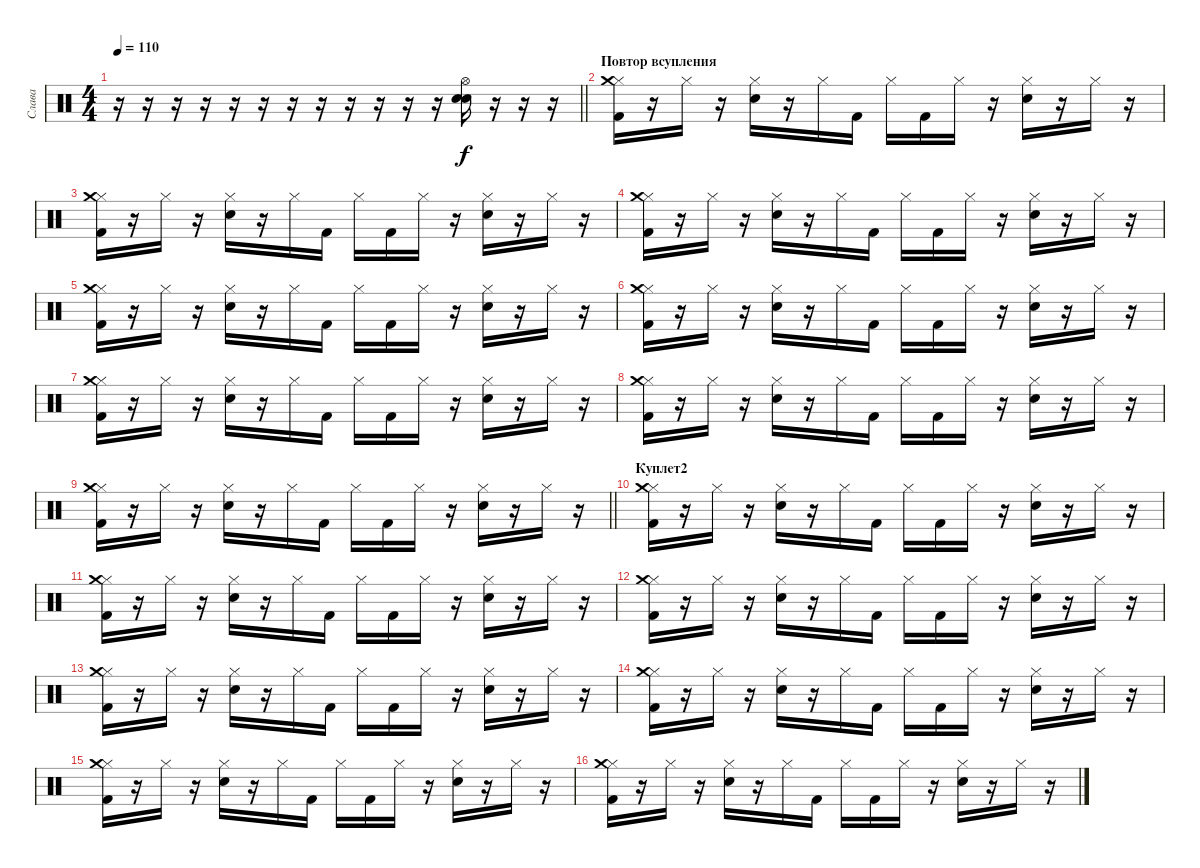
\track ("Слава" "Слава") {instrument percussion}
\staff {score}
\articulation defaults
\ts (4 4)
\tempo 110
\clef neutral
\barLineRight lightlight
\ks c
r.16{dy f} r.16 r.16 r.16 r.16 r.16 r.16 r.16 r.16 r.16 r.16 r.16 ("Hi-Hat (open)" "Snare (hit) 2" "Electric Snare (hit)").16 r.16 r.16 r.16 |
\section ("" "Повтор всупления")
("Hi-Hat (closed)" "Crash medium (hit)" "Kick (hit) 2").16 r.16 "Hi-Hat (closed)".16 r.16 ("Hi-Hat (closed)" "Electric Snare (hit)").16 r.16 "Hi-Hat (closed)".16 "Kick (hit) 2".16 "Hi-Hat (closed)".16 "Kick (hit) 2".16 "Hi-Hat (closed)".16 r.16 ("Hi-Hat (closed)" "Electric Snare (hit)").16 r.16 "Hi-Hat (closed)".16 r.16 |
("Hi-Hat (closed)" "Crash medium (hit)" "Kick (hit) 2").16 r.16 "Hi-Hat (closed)".16 r.16 ("Hi-Hat (closed)" "Electric Snare (hit)").16 r.16 "Hi-Hat (closed)".16 "Kick (hit) 2".16 "Hi-Hat (closed)".16 "Kick (hit) 2".16 "Hi-Hat (closed)".16 r.16 ("Hi-Hat (closed)" "Electric Snare (hit)").16 r.16 "Hi-Hat (closed)".16 r.16 |
("Hi-Hat (closed)" "Crash medium (hit)" "Kick (hit) 2").16 r.16 "Hi-Hat (closed)".16 r.16 ("Hi-Hat (closed)" "Electric Snare (hit)").16 r.16 "Hi-Hat (closed)".16 "Kick (hit) 2".16 "Hi-Hat (closed)".16 "Kick (hit) 2".16 "Hi-Hat (closed)".16 r.16 ("Hi-Hat (closed)" "Electric Snare (hit)").16 r.16 "Hi-Hat (closed)".16 r.16 |
("Hi-Hat (closed)" "Crash medium (hit)" "Kick (hit) 2").16 r.16 "Hi-Hat (closed)".16 r.16 ("Hi-Hat (closed)" "Electric Snare (hit)").16 r.16 "Hi-Hat (closed)".16 "Kick (hit) 2".16 "Hi-Hat (closed)".16 "Kick (hit) 2".16 "Hi-Hat (closed)".16 r.16 ("Hi-Hat (closed)" "Electric Snare (hit)").16 r.16 "Hi-Hat (closed)".16 r.16 |
("Hi-Hat (closed)" "Crash medium (hit)" "Kick (hit) 2").16 r.16 "Hi-Hat (closed)".16 r.16 ("Hi-Hat (closed)" "Electric Snare (hit)").16 r.16 "Hi-Hat (closed)".16 "Kick (hit) 2".16 "Hi-Hat (closed)".16 "Kick (hit) 2".16 "Hi-Hat (closed)".16 r.16 ("Hi-Hat (closed)" "Electric Snare (hit)").16 r.16 "Hi-Hat (closed)".16 r.16 |
("Hi-Hat (closed)" "Crash medium (hit)" "Kick (hit) 2").16 r.16 "Hi-Hat (closed)".16 r.16 ("Hi-Hat (closed)" "Electric Snare (hit)").16 r.16 "Hi-Hat (closed)".16 "Kick (hit) 2".16 "Hi-Hat (closed)".16 "Kick (hit) 2".16 "Hi-Hat (closed)".16 r.16 ("Hi-Hat (closed)" "Electric Snare (hit)").16 r.16 "Hi-Hat (closed)".16 r.16 |
("Hi-Hat (closed)" "Crash medium (hit)" "Kick (hit) 2").16 r.16 "Hi-Hat (closed)".16 r.16 ("Hi-Hat (closed)" "Electric Snare (hit)").16 r.16 "Hi-Hat (closed)".16 "Kick (hit) 2".16 "Hi-Hat (closed)".16 "Kick (hit) 2".16 "Hi-Hat (closed)".16 r.16 ("Hi-Hat (closed)" "Electric Snare (hit)").16 r.16 "Hi-Hat (closed)".16 r.16 |
\barLineRight lightlight
("Hi-Hat (closed)" "Crash medium (hit)" "Kick (hit) 2").16 r.16 "Hi-Hat (closed)".16 r.16 ("Hi-Hat (closed)" "Electric Snare (hit)").16 r.16 "Hi-Hat (closed)".16 "Kick (hit) 2".16 "Hi-Hat (closed)".16 "Kick (hit) 2".16 "Hi-Hat (closed)".16 r.16 ("Hi-Hat (closed)" "Electric Snare (hit)").16 r.16 "Hi-Hat (closed)".16 r.16 |
\section ("" "Куплет2")
("Hi-Hat (closed)" "Crash medium (hit)" "Kick (hit) 2").16 r.16 "Hi-Hat (closed)".16 r.16 ("Hi-Hat (closed)" "Electric Snare (hit)").16 r.16 "Hi-Hat (closed)".16 "Kick (hit) 2".16 "Hi-Hat (closed)".16 "Kick (hit) 2".16 "Hi-Hat (closed)".16 r.16 ("Hi-Hat (closed)" "Electric Snare (hit)").16 r.16 "Hi-Hat (closed)".16 r.16 |
("Hi-Hat (closed)" "Crash medium (hit)" "Kick (hit) 2").16 r.16 "Hi-Hat (closed)".16 r.16 ("Hi-Hat (closed)" "Electric Snare (hit)").16 r.16 "Hi-Hat (closed)".16 "Kick (hit) 2".16 "Hi-Hat (closed)".16 "Kick (hit) 2".16 "Hi-Hat (closed)".16 r.16 ("Hi-Hat (closed)" "Electric Snare (hit)").16 r.16 "Hi-Hat (closed)".16 r.16 |
("Hi-Hat (closed)" "Crash medium (hit)" "Kick (hit) 2").16 r.16 "Hi-Hat (closed)".16 r.16 ("Hi-Hat (closed)" "Electric Snare (hit)").16 r.16 "Hi-Hat (closed)".16 "Kick (hit) 2".16 "Hi-Hat (closed)".16 "Kick (hit) 2".16 "Hi-Hat (closed)".16 r.16 ("Hi-Hat (closed)" "Electric Snare (hit)").16 r.16 "Hi-Hat (closed)".16 r.16 |
("Hi-Hat (closed)" "Crash medium (hit)" "Kick (hit) 2").16 r.16 "Hi-Hat (closed)".16 r.16 ("Hi-Hat (closed)" "Electric Snare (hit)").16 r.16 "Hi-Hat (closed)".16 "Kick (hit) 2".16 "Hi-Hat (closed)".16 "Kick (hit) 2".16 "Hi-Hat (closed)".16 r.16 ("Hi-Hat (closed)" "Electric Snare (hit)").16 r.16 "Hi-Hat (closed)".16 r.16 |
("Hi-Hat (closed)" "Crash medium (hit)" "Kick (hit) 2").16 r.16 "Hi-Hat (closed)".16 r.16 ("Hi-Hat (closed)" "Electric Snare (hit)").16 r.16 "Hi-Hat (closed)".16 "Kick (hit) 2".16 "Hi-Hat (closed)".16 "Kick (hit) 2".16 "Hi-Hat (closed)".16 r.16 ("Hi-Hat (closed)" "Electric Snare (hit)").16 r.16 "Hi-Hat (closed)".16 r.16 |
("Hi-Hat (closed)" "Crash medium (hit)" "Kick (hit) 2").16 r.16 "Hi-Hat (closed)".16 r.16 ("Hi-Hat (closed)" "Electric Snare (hit)").16 r.16 "Hi-Hat (closed)".16 "Kick (hit) 2".16 "Hi-Hat (closed)".16 "Kick (hit) 2".16 "Hi-Hat (closed)".16 r.16 ("Hi-Hat (closed)" "Electric Snare (hit)").16 r.16 "Hi-Hat (closed)".16 r.16 |
("Hi-Hat (closed)" "Crash medium (hit)" "Kick (hit) 2").16 r.16 "Hi-Hat (closed)".16 r.16 ("Hi-Hat (closed)" "Electric Snare (hit)").16 r.16 "Hi-Hat (closed)".16 "Kick (hit) 2".16 "Hi-Hat (closed)".16 "Kick (hit) 2".16 "Hi-Hat (closed)".16 r.16 ("Hi-Hat (closed)" "Electric Snare (hit)").16 r.16 "Hi-Hat (closed)".16 r.16
